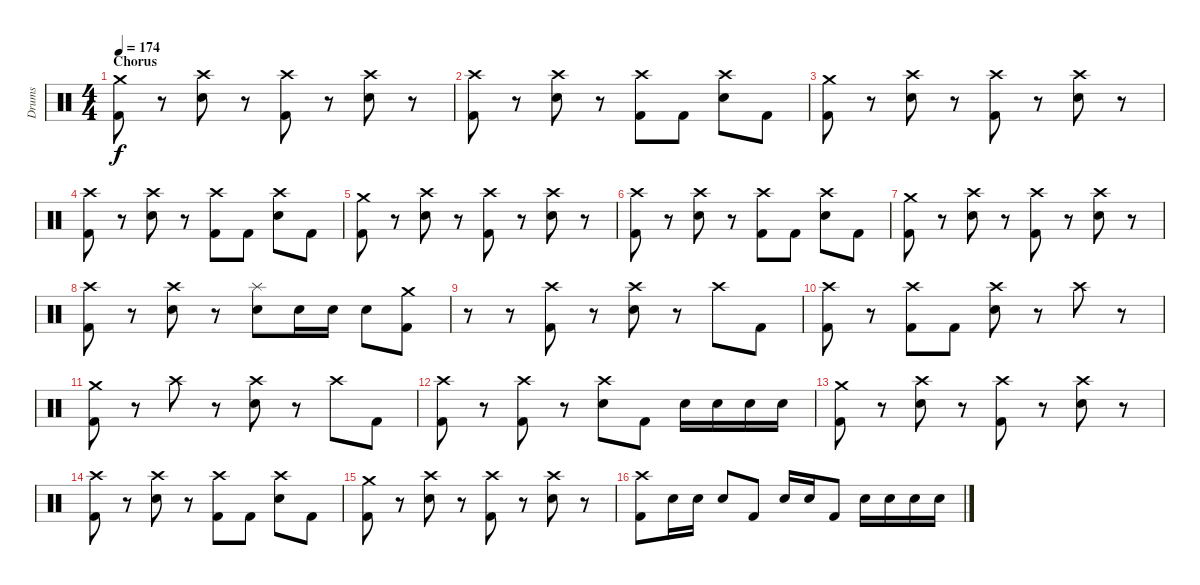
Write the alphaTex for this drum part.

\track ("Drums" "Drums") {instrument percussion}
\staff {score}
\articulation defaults
\ts (4 4)
\section ("" "Chorus")
\tempo 174
\clef neutral
\ks c
("Crash medium (hit)" "Kick (hit) 2").8{dy f} r.8 ("Crash high (hit)" "Electric Snare (hit)").8 r.8 ("Crash high (hit)" "Kick (hit) 2").8 r.8 ("Crash high (hit)" "Electric Snare (hit)").8 r.8 |
("Crash high (hit)" "Kick (hit) 2").8 r.8 ("Crash high (hit)" "Electric Snare (hit)").8 r.8 ("Crash high (hit)" "Kick (hit) 2").8 "Kick (hit) 2".8 ("Crash high (hit)" "Electric Snare (hit)").8 "Kick (hit) 2".8 |
("Crash medium (hit)" "Kick (hit) 2").8 r.8 ("Crash high (hit)" "Electric Snare (hit)").8 r.8 ("Crash high (hit)" "Kick (hit) 2").8 r.8 ("Crash high (hit)" "Electric Snare (hit)").8 r.8 |
("Crash high (hit)" "Kick (hit) 2").8 r.8 ("Crash high (hit)" "Electric Snare (hit)").8 r.8 ("Crash high (hit)" "Kick (hit) 2").8 "Kick (hit) 2".8 ("Crash high (hit)" "Electric Snare (hit)").8 "Kick (hit) 2".8 |
("Crash medium (hit)" "Kick (hit) 2").8 r.8 ("Crash high (hit)" "Electric Snare (hit)").8 r.8 ("Crash high (hit)" "Kick (hit) 2").8 r.8 ("Crash high (hit)" "Electric Snare (hit)").8 r.8 |
("Crash high (hit)" "Kick (hit) 2").8 r.8 ("Crash high (hit)" "Electric Snare (hit)").8 r.8 ("Crash high (hit)" "Kick (hit) 2").8 "Kick (hit) 2".8 ("Crash high (hit)" "Electric Snare (hit)").8 "Kick (hit) 2".8 |
("Crash medium (hit)" "Kick (hit) 2").8 r.8 ("Crash high (hit)" "Electric Snare (hit)").8 r.8 ("Crash high (hit)" "Kick (hit) 2").8 r.8 ("Crash high (hit)" "Electric Snare (hit)").8 r.8 |
("Crash high (hit)" "Kick (hit) 2").8 r.8 ("Crash high (hit)" "Electric Snare (hit)").8 r.8 ("Splash (hit)" "Electric Snare (hit)").8 "Electric Snare (hit)".16 "Electric Snare (hit)".16 "Electric Snare (hit)".8 ("Crash medium (hit)" "Kick (hit) 2").8 |
r.8 r.8 ("Crash high (hit)" "Kick (hit) 2").8 r.8 ("Crash high (hit)" "Electric Snare (hit)").8 r.8 "Crash high (hit)".8 "Kick (hit) 2".8 |
("Crash high (hit)" "Kick (hit) 2").8 r.8 ("Crash high (hit)" "Kick (hit) 2").8 "Kick (hit) 2".8 ("Crash high (hit)" "Electric Snare (hit)").8 r.8 "Crash high (hit)".8 r.8 |
("Crash medium (hit)" "Kick (hit) 2").8 r.8 "Crash high (hit)".8 r.8 ("Crash high (hit)" "Electric Snare (hit)").8 r.8 "Crash high (hit)".8 "Kick (hit) 2".8 |
("Crash high (hit)" "Kick (hit) 2").8 r.8 ("Crash high (hit)" "Kick (hit) 2").8 r.8 ("Crash high (hit)" "Electric Snare (hit)").8 "Kick (hit) 2".8 "Electric Snare (hit)".16 "Electric Snare (hit)".16 "Electric Snare (hit)".16 "Electric Snare (hit)".16 |
("Crash medium (hit)" "Kick (hit) 2").8 r.8 ("Crash high (hit)" "Electric Snare (hit)").8 r.8 ("Crash high (hit)" "Kick (hit) 2").8 r.8 ("Crash high (hit)" "Electric Snare (hit)").8 r.8 |
("Crash high (hit)" "Kick (hit) 2").8 r.8 ("Crash high (hit)" "Electric Snare (hit)").8 r.8 ("Crash high (hit)" "Kick (hit) 2").8 "Kick (hit) 2".8 ("Crash high (hit)" "Electric Snare (hit)").8 "Kick (hit) 2".8 |
("Crash medium (hit)" "Kick (hit) 2").8 r.8 ("Crash high (hit)" "Electric Snare (hit)").8 r.8 ("Crash high (hit)" "Kick (hit) 2").8 r.8 ("Crash high (hit)" "Electric Snare (hit)").8 r.8 |
("Crash high (hit)" "Kick (hit) 2").8 "Electric Snare (hit)".16 "Electric Snare (hit)".16 "Electric Snare (hit)".8 "Kick (hit) 2".8 "Electric Snare (hit)".16 "Electric Snare (hit)".16 "Kick (hit) 2".8 "Electric Snare (hit)".16 "Electric Snare (hit)".16 "Electric Snare (hit)".16 "Electric Snare (hit)".16
